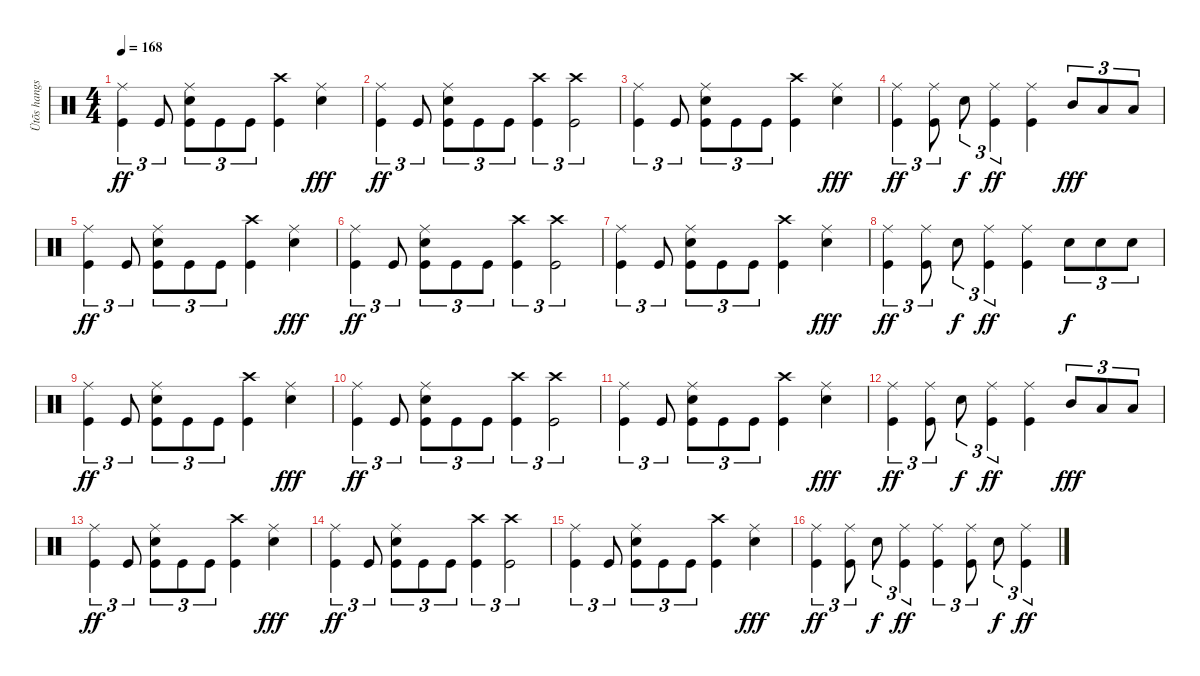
\track ("Ütõs hangszer" "Ütõs hangs") {instrument percussion}
\staff {score}
\articulation defaults
\ts (4 4)
\tempo 168
\clef neutral
\ks c
("Ride (middle)" "Kick (hit)").4{tu (3 2) dy ff} "Kick (hit)".8{tu (3 2)} ("Ride (middle)" "Electric Snare (hit)" "Kick (hit)").8{tu (3 2)} "Kick (hit)".8{tu (3 2)} "Kick (hit)".8{tu (3 2)} ("Crash high (hit)" "Kick (hit)").4 ("Ride (middle)" "Electric Snare (hit)").4{dy fff} |
("Ride (middle)" "Kick (hit)").4{tu (3 2) dy ff} "Kick (hit)".8{tu (3 2)} ("Ride (middle)" "Electric Snare (hit)" "Kick (hit)").8{tu (3 2)} "Kick (hit)".8{tu (3 2)} "Kick (hit)".8{tu (3 2)} ("Crash high (hit)" "Kick (hit)").4{tu (3 2)} ("Crash high (hit)" "Kick (hit)").2{tu (3 2)} |
("Ride (middle)" "Kick (hit)").4{tu (3 2)} "Kick (hit)".8{tu (3 2)} ("Ride (middle)" "Electric Snare (hit)" "Kick (hit)").8{tu (3 2)} "Kick (hit)".8{tu (3 2)} "Kick (hit)".8{tu (3 2)} ("Crash high (hit)" "Kick (hit)").4 ("Ride (middle)" "Electric Snare (hit)").4{dy fff} |
("Ride (middle)" "Kick (hit)").4{tu (3 2) dy ff} ("Ride (middle)" "Kick (hit)").8{tu (3 2)} "Electric Snare (hit)".8{tu (3 2) dy f} ("Ride (middle)" "Kick (hit)").4{tu (3 2) dy ff} ("Ride (middle)" "Kick (hit)").4 "Mid Tom (hit)".8{tu (3 2) dy fff} "Low Tom (hit)".8{tu (3 2)} "Low Tom (hit)".8{tu (3 2)} |
("Ride (middle)" "Kick (hit)").4{tu (3 2) dy ff} "Kick (hit)".8{tu (3 2)} ("Ride (middle)" "Electric Snare (hit)" "Kick (hit)").8{tu (3 2)} "Kick (hit)".8{tu (3 2)} "Kick (hit)".8{tu (3 2)} ("Crash high (hit)" "Kick (hit)").4 ("Ride (middle)" "Electric Snare (hit)").4{dy fff} |
("Ride (middle)" "Kick (hit)").4{tu (3 2) dy ff} "Kick (hit)".8{tu (3 2)} ("Ride (middle)" "Electric Snare (hit)" "Kick (hit)").8{tu (3 2)} "Kick (hit)".8{tu (3 2)} "Kick (hit)".8{tu (3 2)} ("Crash high (hit)" "Kick (hit)").4{tu (3 2)} ("Crash high (hit)" "Kick (hit)").2{tu (3 2)} |
("Ride (middle)" "Kick (hit)").4{tu (3 2)} "Kick (hit)".8{tu (3 2)} ("Ride (middle)" "Electric Snare (hit)" "Kick (hit)").8{tu (3 2)} "Kick (hit)".8{tu (3 2)} "Kick (hit)".8{tu (3 2)} ("Crash high (hit)" "Kick (hit)").4 ("Ride (middle)" "Electric Snare (hit)").4{dy fff} |
("Ride (middle)" "Kick (hit)").4{tu (3 2) dy ff} ("Ride (middle)" "Kick (hit)").8{tu (3 2)} "Electric Snare (hit)".8{tu (3 2) dy f} ("Ride (middle)" "Kick (hit)").4{tu (3 2) dy ff} ("Ride (middle)" "Kick (hit)").4 "Electric Snare (hit)".8{tu (3 2) dy f} "Electric Snare (hit)".8{tu (3 2)} "Electric Snare (hit)".8{tu (3 2)} |
("Ride (middle)" "Kick (hit)").4{tu (3 2) dy ff} "Kick (hit)".8{tu (3 2)} ("Ride (middle)" "Electric Snare (hit)" "Kick (hit)").8{tu (3 2)} "Kick (hit)".8{tu (3 2)} "Kick (hit)".8{tu (3 2)} ("Crash high (hit)" "Kick (hit)").4 ("Ride (middle)" "Electric Snare (hit)").4{dy fff} |
("Ride (middle)" "Kick (hit)").4{tu (3 2) dy ff} "Kick (hit)".8{tu (3 2)} ("Ride (middle)" "Electric Snare (hit)" "Kick (hit)").8{tu (3 2)} "Kick (hit)".8{tu (3 2)} "Kick (hit)".8{tu (3 2)} ("Crash high (hit)" "Kick (hit)").4{tu (3 2)} ("Crash high (hit)" "Kick (hit)").2{tu (3 2)} |
("Ride (middle)" "Kick (hit)").4{tu (3 2)} "Kick (hit)".8{tu (3 2)} ("Ride (middle)" "Electric Snare (hit)" "Kick (hit)").8{tu (3 2)} "Kick (hit)".8{tu (3 2)} "Kick (hit)".8{tu (3 2)} ("Crash high (hit)" "Kick (hit)").4 ("Ride (middle)" "Electric Snare (hit)").4{dy fff} |
("Ride (middle)" "Kick (hit)").4{tu (3 2) dy ff} ("Ride (middle)" "Kick (hit)").8{tu (3 2)} "Electric Snare (hit)".8{tu (3 2) dy f} ("Ride (middle)" "Kick (hit)").4{tu (3 2) dy ff} ("Ride (middle)" "Kick (hit)").4 "Mid Tom (hit)".8{tu (3 2) dy fff} "Low Tom (hit)".8{tu (3 2)} "Low Tom (hit)".8{tu (3 2)} |
("Ride (middle)" "Kick (hit)").4{tu (3 2) dy ff} "Kick (hit)".8{tu (3 2)} ("Ride (middle)" "Electric Snare (hit)" "Kick (hit)").8{tu (3 2)} "Kick (hit)".8{tu (3 2)} "Kick (hit)".8{tu (3 2)} ("Crash high (hit)" "Kick (hit)").4 ("Ride (middle)" "Electric Snare (hit)").4{dy fff} |
("Ride (middle)" "Kick (hit)").4{tu (3 2) dy ff} "Kick (hit)".8{tu (3 2)} ("Ride (middle)" "Electric Snare (hit)" "Kick (hit)").8{tu (3 2)} "Kick (hit)".8{tu (3 2)} "Kick (hit)".8{tu (3 2)} ("Crash high (hit)" "Kick (hit)").4{tu (3 2)} ("Crash high (hit)" "Kick (hit)").2{tu (3 2)} |
("Ride (middle)" "Kick (hit)").4{tu (3 2)} "Kick (hit)".8{tu (3 2)} ("Ride (middle)" "Electric Snare (hit)" "Kick (hit)").8{tu (3 2)} "Kick (hit)".8{tu (3 2)} "Kick (hit)".8{tu (3 2)} ("Crash high (hit)" "Kick (hit)").4 ("Ride (middle)" "Electric Snare (hit)").4{dy fff} |
("Ride (middle)" "Kick (hit)").4{tu (3 2) dy ff} ("Ride (middle)" "Kick (hit)").8{tu (3 2)} "Electric Snare (hit)".8{tu (3 2) dy f} ("Ride (middle)" "Kick (hit)").4{tu (3 2) dy ff} ("Ride (middle)" "Kick (hit)").4{tu (3 2)} ("Ride (middle)" "Kick (hit)").8{tu (3 2)} "Electric Snare (hit)".8{tu (3 2) dy f} ("Ride (middle)" "Kick (hit)").4{tu (3 2) dy ff}
